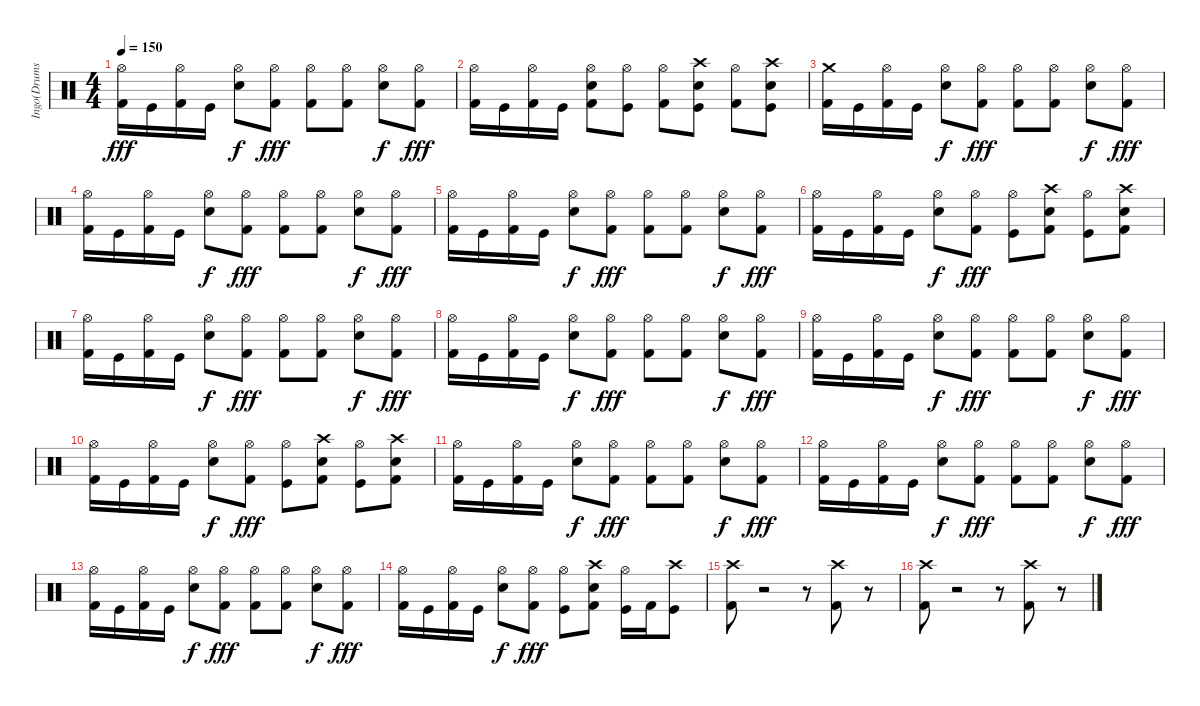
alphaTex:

\track ("Ingo(Drums)" "Ingo(Drums") {instrument percussion}
\staff {score}
\articulation defaults
\ts (4 4)
\tempo 150
\clef neutral
\ks c
("Hi-Hat (open)" "Kick (hit) 2").16{dy fff} "Kick (hit)".16 ("Hi-Hat (open)" "Kick (hit) 2").16 "Kick (hit)".16 ("Hi-Hat (open)" "Electric Snare (hit)").8{dy f} ("Hi-Hat (open)" "Kick (hit) 2").8{dy fff} ("Hi-Hat (open)" "Kick (hit) 2").8 ("Hi-Hat (open)" "Kick (hit) 2").8 ("Hi-Hat (open)" "Electric Snare (hit)").8{dy f} ("Hi-Hat (open)" "Kick (hit) 2").8{dy fff} |
("Hi-Hat (open)" "Kick (hit) 2").16 "Kick (hit)".16 ("Hi-Hat (open)" "Kick (hit) 2").16 "Kick (hit)".16 ("Hi-Hat (open)" "Electric Snare (hit)" "Kick (hit) 2").8 ("Hi-Hat (open)" "Kick (hit)").8 ("Hi-Hat (open)" "Kick (hit) 2").8 ("Crash high (hit)" "Electric Snare (hit)" "Kick (hit)").8 ("Hi-Hat (open)" "Kick (hit) 2").8 ("Crash high (hit)" "Electric Snare (hit)" "Kick (hit)").8 |
("Crash medium (hit)" "Kick (hit) 2").16 "Kick (hit)".16 ("Hi-Hat (open)" "Kick (hit) 2").16 "Kick (hit)".16 ("Hi-Hat (open)" "Electric Snare (hit)").8{dy f} ("Hi-Hat (open)" "Kick (hit) 2").8{dy fff} ("Hi-Hat (open)" "Kick (hit) 2").8 ("Hi-Hat (open)" "Kick (hit) 2").8 ("Hi-Hat (open)" "Electric Snare (hit)").8{dy f} ("Hi-Hat (open)" "Kick (hit) 2").8{dy fff} |
("Hi-Hat (open)" "Kick (hit) 2").16 "Kick (hit)".16 ("Hi-Hat (open)" "Kick (hit) 2").16 "Kick (hit)".16 ("Hi-Hat (open)" "Electric Snare (hit)").8{dy f} ("Hi-Hat (open)" "Kick (hit) 2").8{dy fff} ("Hi-Hat (open)" "Kick (hit) 2").8 ("Hi-Hat (open)" "Kick (hit) 2").8 ("Hi-Hat (open)" "Electric Snare (hit)").8{dy f} ("Hi-Hat (open)" "Kick (hit) 2").8{dy fff} |
("Hi-Hat (open)" "Kick (hit) 2").16 "Kick (hit)".16 ("Hi-Hat (open)" "Kick (hit) 2").16 "Kick (hit)".16 ("Hi-Hat (open)" "Electric Snare (hit)").8{dy f} ("Hi-Hat (open)" "Kick (hit) 2").8{dy fff} ("Hi-Hat (open)" "Kick (hit) 2").8 ("Hi-Hat (open)" "Kick (hit) 2").8 ("Hi-Hat (open)" "Electric Snare (hit)").8{dy f} ("Hi-Hat (open)" "Kick (hit) 2").8{dy fff} |
("Hi-Hat (open)" "Kick (hit) 2").16 "Kick (hit)".16 ("Hi-Hat (open)" "Kick (hit) 2").16 "Kick (hit)".16 ("Hi-Hat (open)" "Electric Snare (hit)").8{dy f} ("Hi-Hat (open)" "Kick (hit) 2").8{dy fff} ("Hi-Hat (open)" "Kick (hit)").8 ("Crash high (hit)" "Electric Snare (hit)" "Kick (hit) 2").8 ("Hi-Hat (open)" "Kick (hit)").8 ("Crash high (hit)" "Electric Snare (hit)" "Kick (hit) 2").8 |
("Hi-Hat (open)" "Kick (hit) 2").16 "Kick (hit)".16 ("Hi-Hat (open)" "Kick (hit) 2").16 "Kick (hit)".16 ("Hi-Hat (open)" "Electric Snare (hit)").8{dy f} ("Hi-Hat (open)" "Kick (hit) 2").8{dy fff} ("Hi-Hat (open)" "Kick (hit) 2").8 ("Hi-Hat (open)" "Kick (hit) 2").8 ("Hi-Hat (open)" "Electric Snare (hit)").8{dy f} ("Hi-Hat (open)" "Kick (hit) 2").8{dy fff} |
("Hi-Hat (open)" "Kick (hit) 2").16 "Kick (hit)".16 ("Hi-Hat (open)" "Kick (hit) 2").16 "Kick (hit)".16 ("Hi-Hat (open)" "Electric Snare (hit)").8{dy f} ("Hi-Hat (open)" "Kick (hit) 2").8{dy fff} ("Hi-Hat (open)" "Kick (hit) 2").8 ("Hi-Hat (open)" "Kick (hit) 2").8 ("Hi-Hat (open)" "Electric Snare (hit)").8{dy f} ("Hi-Hat (open)" "Kick (hit) 2").8{dy fff} |
("Hi-Hat (open)" "Kick (hit) 2").16 "Kick (hit)".16 ("Hi-Hat (open)" "Kick (hit) 2").16 "Kick (hit)".16 ("Hi-Hat (open)" "Electric Snare (hit)").8{dy f} ("Hi-Hat (open)" "Kick (hit) 2").8{dy fff} ("Hi-Hat (open)" "Kick (hit) 2").8 ("Hi-Hat (open)" "Kick (hit) 2").8 ("Hi-Hat (open)" "Electric Snare (hit)").8{dy f} ("Hi-Hat (open)" "Kick (hit) 2").8{dy fff} |
("Hi-Hat (open)" "Kick (hit) 2").16 "Kick (hit)".16 ("Hi-Hat (open)" "Kick (hit) 2").16 "Kick (hit)".16 ("Hi-Hat (open)" "Electric Snare (hit)").8{dy f} ("Hi-Hat (open)" "Kick (hit) 2").8{dy fff} ("Hi-Hat (open)" "Kick (hit)").8 ("Crash high (hit)" "Electric Snare (hit)" "Kick (hit) 2").8 ("Hi-Hat (open)" "Kick (hit)").8 ("Crash high (hit)" "Electric Snare (hit)" "Kick (hit) 2").8 |
("Hi-Hat (open)" "Kick (hit) 2").16 "Kick (hit)".16 ("Hi-Hat (open)" "Kick (hit) 2").16 "Kick (hit)".16 ("Hi-Hat (open)" "Electric Snare (hit)").8{dy f} ("Hi-Hat (open)" "Kick (hit) 2").8{dy fff} ("Hi-Hat (open)" "Kick (hit) 2").8 ("Hi-Hat (open)" "Kick (hit) 2").8 ("Hi-Hat (open)" "Electric Snare (hit)").8{dy f} ("Hi-Hat (open)" "Kick (hit) 2").8{dy fff} |
("Hi-Hat (open)" "Kick (hit) 2").16 "Kick (hit)".16 ("Hi-Hat (open)" "Kick (hit) 2").16 "Kick (hit)".16 ("Hi-Hat (open)" "Electric Snare (hit)").8{dy f} ("Hi-Hat (open)" "Kick (hit) 2").8{dy fff} ("Hi-Hat (open)" "Kick (hit) 2").8 ("Hi-Hat (open)" "Kick (hit) 2").8 ("Hi-Hat (open)" "Electric Snare (hit)").8{dy f} ("Hi-Hat (open)" "Kick (hit) 2").8{dy fff} |
("Hi-Hat (open)" "Kick (hit) 2").16 "Kick (hit)".16 ("Hi-Hat (open)" "Kick (hit) 2").16 "Kick (hit)".16 ("Hi-Hat (open)" "Electric Snare (hit)").8{dy f} ("Hi-Hat (open)" "Kick (hit) 2").8{dy fff} ("Hi-Hat (open)" "Kick (hit) 2").8 ("Hi-Hat (open)" "Kick (hit) 2").8 ("Hi-Hat (open)" "Electric Snare (hit)").8{dy f} ("Hi-Hat (open)" "Kick (hit) 2").8{dy fff} |
("Hi-Hat (open)" "Kick (hit) 2").16 "Kick (hit)".16 ("Hi-Hat (open)" "Kick (hit) 2").16 "Kick (hit)".16 ("Hi-Hat (open)" "Electric Snare (hit)").8{dy f} ("Hi-Hat (open)" "Kick (hit) 2").8{dy fff} ("Hi-Hat (open)" "Kick (hit)").8 ("Crash high (hit)" "Electric Snare (hit)" "Kick (hit) 2").8 ("Hi-Hat (open)" "Kick (hit)").16 "Kick (hit) 2".16 ("Crash high (hit)" "Kick (hit)").8 |
("Crash high (hit)" "Kick (hit) 2").8 r.2 r.8 ("Crash high (hit)" "Kick (hit) 2").8 r.8 |
("Crash high (hit)" "Kick (hit) 2").8 r.2 r.8 ("Crash high (hit)" "Kick (hit) 2").8 r.8
